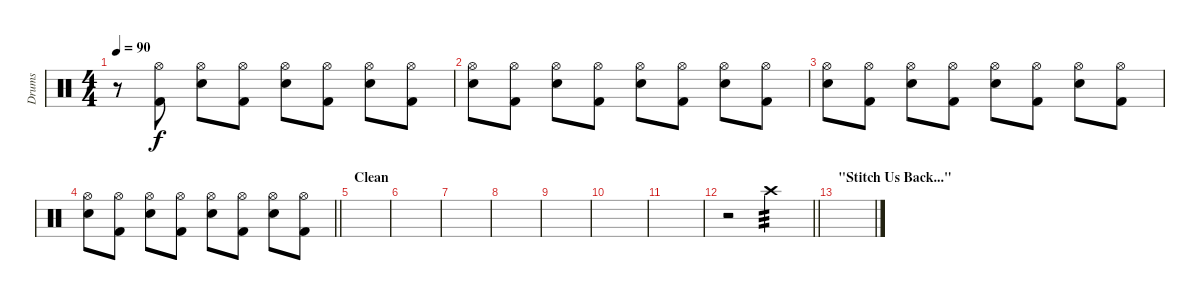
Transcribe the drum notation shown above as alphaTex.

\track ("Drums" "Drums") {instrument percussion}
\staff {score}
\articulation defaults
\ts (4 4)
\tempo 90
\clef neutral
\ks c
r.8{dy f} ("Hi-Hat (open)" "Kick (hit) 2").8 ("Hi-Hat (open)" "Electric Snare (hit)").8 ("Hi-Hat (open)" "Kick (hit) 2").8 ("Hi-Hat (open)" "Electric Snare (hit)").8 ("Hi-Hat (open)" "Kick (hit) 2").8 ("Hi-Hat (open)" "Electric Snare (hit)").8 ("Hi-Hat (open)" "Kick (hit) 2").8 |
("Hi-Hat (open)" "Electric Snare (hit)").8 ("Hi-Hat (open)" "Kick (hit) 2").8 ("Hi-Hat (open)" "Electric Snare (hit)").8 ("Hi-Hat (open)" "Kick (hit) 2").8 ("Hi-Hat (open)" "Electric Snare (hit)").8 ("Hi-Hat (open)" "Kick (hit) 2").8 ("Hi-Hat (open)" "Electric Snare (hit)").8 ("Hi-Hat (open)" "Kick (hit) 2").8 |
("Hi-Hat (open)" "Electric Snare (hit)").8 ("Hi-Hat (open)" "Kick (hit) 2").8 ("Hi-Hat (open)" "Electric Snare (hit)").8 ("Hi-Hat (open)" "Kick (hit) 2").8 ("Hi-Hat (open)" "Electric Snare (hit)").8 ("Hi-Hat (open)" "Kick (hit) 2").8 ("Hi-Hat (open)" "Electric Snare (hit)").8 ("Hi-Hat (open)" "Kick (hit) 2").8 |
\barLineRight lightlight
("Hi-Hat (open)" "Electric Snare (hit)").8 ("Hi-Hat (open)" "Kick (hit) 2").8 ("Hi-Hat (open)" "Electric Snare (hit)").8 ("Hi-Hat (open)" "Kick (hit) 2").8 ("Hi-Hat (open)" "Electric Snare (hit)").8 ("Hi-Hat (open)" "Kick (hit) 2").8 ("Hi-Hat (open)" "Electric Snare (hit)").8 ("Hi-Hat (open)" "Kick (hit) 2").8 |
\section ("" "Clean")
|
|
|
|
|
|
|
\barLineRight lightlight
r.2{volume 0} "Crash high (hit)".2{tp 3 volume 16} |
\section ("" "\"Stitch Us Back...\"")
